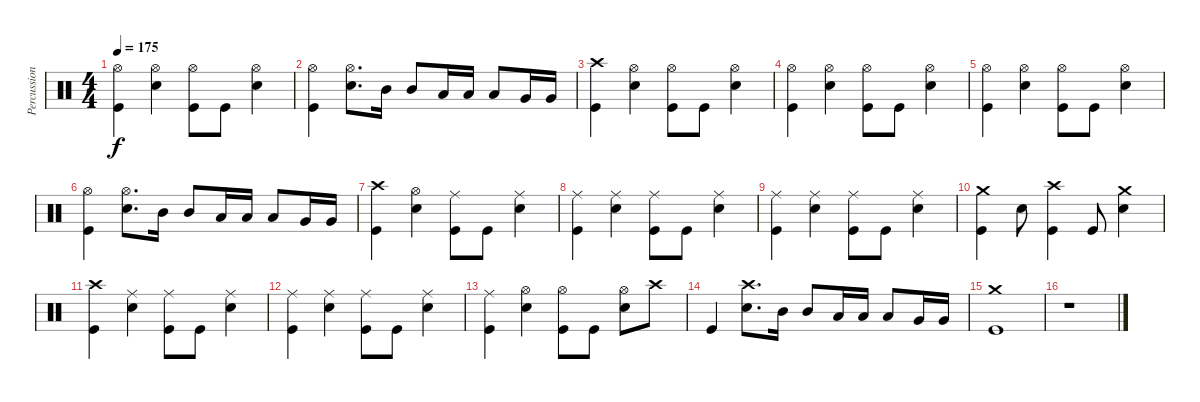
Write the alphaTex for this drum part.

\track ("Percussion" "Percussion") {instrument percussion}
\staff {score}
\articulation defaults
\ts (4 4)
\tempo 175
\clef neutral
\ks c
("Hi-Hat (open)" "Kick (hit)").4{dy f} ("Hi-Hat (open)" "Electric Snare (hit)").4 ("Hi-Hat (open)" "Kick (hit)").8 "Kick (hit)".8 ("Hi-Hat (open)" "Electric Snare (hit)").4 |
("Hi-Hat (open)" "Kick (hit)").4 ("Hi-Hat (open)" "Electric Snare (hit)").8{d} "Mid Tom (hit)".16 "Mid Tom (hit)".8 "Low Tom (hit)".16 "Low Tom (hit)".16 "Low Tom (hit)".8 "Very Low Tom (hit)".16 "Very Low Tom (hit)".16 |
("Crash high (hit)" "Kick (hit)").4 ("Hi-Hat (open)" "Electric Snare (hit)").4 ("Hi-Hat (open)" "Kick (hit)").8 "Kick (hit)".8 ("Hi-Hat (open)" "Electric Snare (hit)").4 |
("Hi-Hat (open)" "Kick (hit)").4 ("Hi-Hat (open)" "Electric Snare (hit)").4 ("Hi-Hat (open)" "Kick (hit)").8 "Kick (hit)".8 ("Hi-Hat (open)" "Electric Snare (hit)").4 |
("Hi-Hat (open)" "Kick (hit)").4 ("Hi-Hat (open)" "Electric Snare (hit)").4 ("Hi-Hat (open)" "Kick (hit)").8 "Kick (hit)".8 ("Hi-Hat (open)" "Electric Snare (hit)").4 |
("Hi-Hat (open)" "Kick (hit)").4 ("Hi-Hat (open)" "Electric Snare (hit)").8{d} "Mid Tom (hit)".16 "Mid Tom (hit)".8 "Low Tom (hit)".16 "Low Tom (hit)".16 "Low Tom (hit)".8 "Very Low Tom (hit)".16 "Very Low Tom (hit)".16 |
("Crash high (hit)" "Kick (hit)").4 ("Hi-Hat (open)" "Electric Snare (hit)").4 ("Ride (middle)" "Kick (hit)").8 "Kick (hit)".8 ("Ride (middle)" "Electric Snare (hit)").4 |
("Ride (middle)" "Kick (hit)").4 ("Ride (middle)" "Electric Snare (hit)").4 ("Ride (middle)" "Kick (hit)").8 "Kick (hit)".8 ("Ride (middle)" "Electric Snare (hit)").4 |
("Ride (middle)" "Kick (hit)").4 ("Ride (middle)" "Electric Snare (hit)").4 ("Ride (middle)" "Kick (hit)").8 "Kick (hit)".8 ("Ride (middle)" "Electric Snare (hit)").4 |
("Crash medium (hit)" "Kick (hit)").4 "Electric Snare (hit)".8 ("Crash high (hit)" "Kick (hit)").4 "Kick (hit)".8 ("Crash medium (hit)" "Electric Snare (hit)").4 |
("Crash high (hit)" "Kick (hit)").4 ("Ride (middle)" "Electric Snare (hit)").4 ("Ride (middle)" "Kick (hit)").8 "Kick (hit)".8 ("Ride (middle)" "Electric Snare (hit)").4 |
("Ride (middle)" "Kick (hit)").4 ("Ride (middle)" "Electric Snare (hit)").4 ("Ride (middle)" "Kick (hit)").8 "Kick (hit)".8 ("Ride (middle)" "Electric Snare (hit)").4 |
("Ride (middle)" "Kick (hit)").4 ("Hi-Hat (open)" "Electric Snare (hit)").4 ("Hi-Hat (open)" "Kick (hit)").8 "Kick (hit)".8 ("Hi-Hat (open)" "Electric Snare (hit)").8 "Crash high (hit)".8 |
"Kick (hit)".4 ("Crash high (hit)" "Electric Snare (hit)").8{d} "Mid Tom (hit)".16 "Mid Tom (hit)".8 "Low Tom (hit)".16 "Low Tom (hit)".16 "Low Tom (hit)".8 "Very Low Tom (hit)".16 "Very Low Tom (hit)".16 |
("Crash medium (hit)" "Kick (hit)").1 |
r.1
